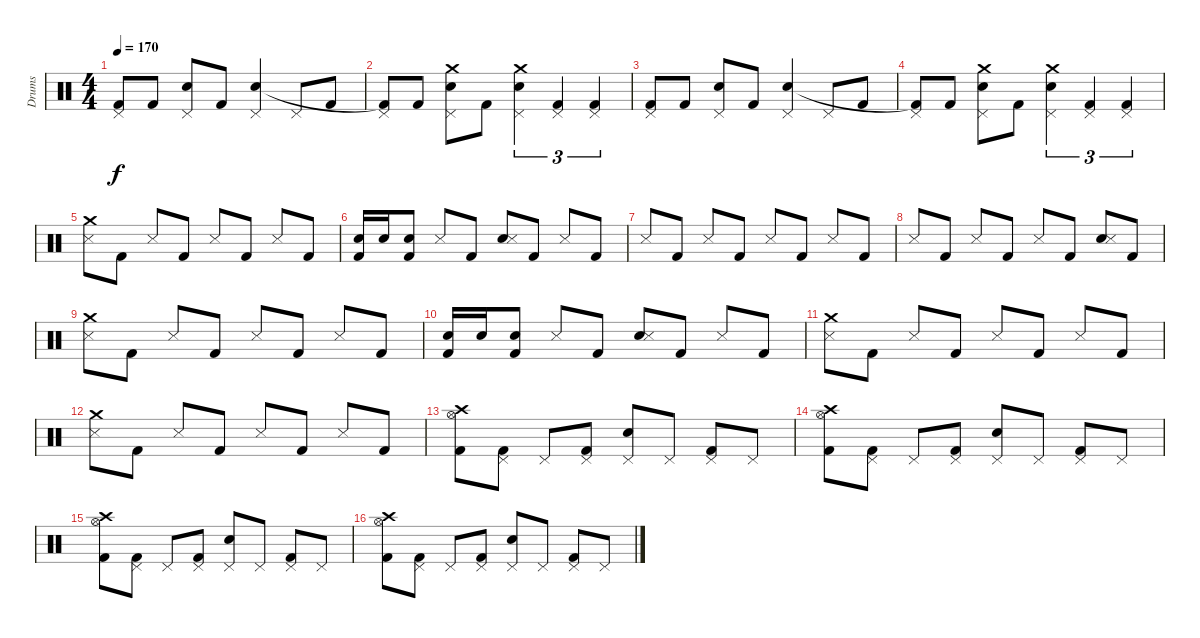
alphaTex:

\track ("Drums" "Drums") {instrument percussion}
\staff {score}
\articulation defaults
\ts (4 4)
\tempo 170
\clef neutral
\ks c
("Pedal Hi-Hat (hit)" "Kick (hit) 2").8{dy f} "Kick (hit) 2".8 ("Pedal Hi-Hat (hit)" "Electric Snare (hit)").8 "Kick (hit) 2".8 ("Pedal Hi-Hat (hit)" "Electric Snare (hit)").4 "Pedal Hi-Hat (hit)".8 "Kick (hit) 2".8 |
("Pedal Hi-Hat (hit)" "Kick (hit) 2"{t}).8 "Kick (hit) 2".8 ("Pedal Hi-Hat (hit)" "Electric Snare (hit)" "Crash medium (hit)").8 "Kick (hit) 2".8 ("Pedal Hi-Hat (hit)" "Electric Snare (hit)" "Crash medium (hit)").4{tu (3 2)} ("Pedal Hi-Hat (hit)" "Kick (hit) 2").4{tu (3 2)} ("Pedal Hi-Hat (hit)" "Kick (hit) 2").4{tu (3 2)} |
("Pedal Hi-Hat (hit)" "Kick (hit) 2").8 "Kick (hit) 2".8 ("Pedal Hi-Hat (hit)" "Electric Snare (hit)").8 "Kick (hit) 2".8 ("Pedal Hi-Hat (hit)" "Electric Snare (hit)").4 "Pedal Hi-Hat (hit)".8 "Kick (hit) 2".8 |
("Pedal Hi-Hat (hit)" "Kick (hit) 2"{t}).8 "Kick (hit) 2".8 ("Pedal Hi-Hat (hit)" "Electric Snare (hit)" "Crash medium (hit)").8 "Kick (hit) 2".8 ("Pedal Hi-Hat (hit)" "Electric Snare (hit)" "Crash medium (hit)").4{tu (3 2)} ("Pedal Hi-Hat (hit)" "Kick (hit) 2").4{tu (3 2)} ("Pedal Hi-Hat (hit)" "Kick (hit) 2").4{tu (3 2)} |
("Crash medium (hit)" "Metronome (hit)").8 "Kick (hit) 2".8 "Metronome (hit)".8 "Kick (hit) 2".8 "Metronome (hit)".8 "Kick (hit) 2".8 "Metronome (hit)".8 "Kick (hit) 2".8 |
("Electric Snare (hit)" "Kick (hit) 2").16 "Electric Snare (hit)".16 ("Electric Snare (hit)" "Kick (hit) 2").8 "Metronome (hit)".8 "Kick (hit) 2".8 ("Electric Snare (hit)" "Metronome (hit)").8 "Kick (hit) 2".8 "Metronome (hit)".8 "Kick (hit) 2".8 |
"Metronome (hit)".8 "Kick (hit) 2".8 "Metronome (hit)".8 "Kick (hit) 2".8 "Metronome (hit)".8 "Kick (hit) 2".8 "Metronome (hit)".8 "Kick (hit) 2".8 |
"Metronome (hit)".8 "Kick (hit) 2".8 "Metronome (hit)".8 "Kick (hit) 2".8 "Metronome (hit)".8 "Kick (hit) 2".8 ("Electric Snare (hit)" "Metronome (hit)").8 "Kick (hit) 2".8 |
("Crash medium (hit)" "Metronome (hit)").8 "Kick (hit) 2".8 "Metronome (hit)".8 "Kick (hit) 2".8 "Metronome (hit)".8 "Kick (hit) 2".8 "Metronome (hit)".8 "Kick (hit) 2".8 |
("Electric Snare (hit)" "Kick (hit) 2").16 "Electric Snare (hit)".16 ("Electric Snare (hit)" "Kick (hit) 2").8 "Metronome (hit)".8 "Kick (hit) 2".8 ("Electric Snare (hit)" "Metronome (hit)").8 "Kick (hit) 2".8 "Metronome (hit)".8 "Kick (hit) 2".8 |
("Crash medium (hit)" "Metronome (hit)").8 "Kick (hit) 2".8 "Metronome (hit)".8 "Kick (hit) 2".8 "Metronome (hit)".8 "Kick (hit) 2".8 "Metronome (hit)".8 "Kick (hit) 2".8 |
("Crash medium (hit)" "Metronome (hit)").8 "Kick (hit) 2".8 "Metronome (hit)".8 "Kick (hit) 2".8 "Metronome (hit)".8 "Kick (hit) 2".8 "Metronome (hit)".8 "Kick (hit) 2".8 |
("Hi-Hat (open)" "Kick (hit) 2" "Crash high (hit)").8 ("Pedal Hi-Hat (hit)" "Kick (hit) 2").8 "Pedal Hi-Hat (hit)".8 ("Pedal Hi-Hat (hit)" "Kick (hit) 2").8 ("Pedal Hi-Hat (hit)" "Electric Snare (hit)").8 "Pedal Hi-Hat (hit)".8 ("Pedal Hi-Hat (hit)" "Kick (hit) 2").8 "Pedal Hi-Hat (hit)".8 |
("Hi-Hat (open)" "Kick (hit) 2" "Crash high (hit)").8 ("Pedal Hi-Hat (hit)" "Kick (hit) 2").8 "Pedal Hi-Hat (hit)".8 ("Pedal Hi-Hat (hit)" "Kick (hit) 2").8 ("Pedal Hi-Hat (hit)" "Electric Snare (hit)").8 "Pedal Hi-Hat (hit)".8 ("Pedal Hi-Hat (hit)" "Kick (hit) 2").8 "Pedal Hi-Hat (hit)".8 |
("Hi-Hat (open)" "Kick (hit) 2" "Crash high (hit)").8 ("Pedal Hi-Hat (hit)" "Kick (hit) 2").8 "Pedal Hi-Hat (hit)".8 ("Pedal Hi-Hat (hit)" "Kick (hit) 2").8 ("Pedal Hi-Hat (hit)" "Electric Snare (hit)").8 "Pedal Hi-Hat (hit)".8 ("Pedal Hi-Hat (hit)" "Kick (hit) 2").8 "Pedal Hi-Hat (hit)".8 |
("Hi-Hat (open)" "Kick (hit) 2" "Crash high (hit)").8 ("Pedal Hi-Hat (hit)" "Kick (hit) 2").8 "Pedal Hi-Hat (hit)".8 ("Pedal Hi-Hat (hit)" "Kick (hit) 2").8 ("Pedal Hi-Hat (hit)" "Electric Snare (hit)").8 "Pedal Hi-Hat (hit)".8 ("Pedal Hi-Hat (hit)" "Kick (hit) 2").8 "Pedal Hi-Hat (hit)".8
